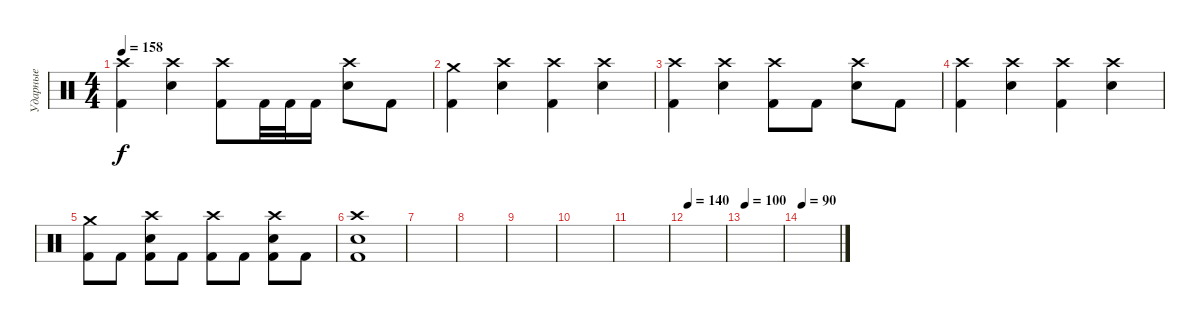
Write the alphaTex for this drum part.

\track ("Ударные" "Ударные") {instrument percussion}
\staff {score}
\articulation defaults
\ts (4 4)
\tempo 158
\clef neutral
\ks c
("Crash high (hit)" "Kick (hit) 2").4{dy f} ("Crash high (hit)" "Snare (hit) 2").4 ("Crash high (hit)" "Kick (hit) 2").8 "Kick (hit) 2".32 "Kick (hit) 2".32 "Kick (hit) 2".16 ("Crash high (hit)" "Snare (hit) 2").8 "Kick (hit) 2".8 |
("Crash medium (hit)" "Kick (hit) 2").4 ("Crash high (hit)" "Snare (hit) 2").4 ("Crash high (hit)" "Kick (hit) 2").4 ("Crash high (hit)" "Snare (hit) 2").4 |
("Crash high (hit)" "Kick (hit) 2").4 ("Crash high (hit)" "Snare (hit) 2").4 ("Crash high (hit)" "Kick (hit) 2").8 "Kick (hit) 2".8 ("Crash high (hit)" "Snare (hit) 2").8 "Kick (hit) 2".8 |
("Crash high (hit)" "Kick (hit) 2").4 ("Crash high (hit)" "Snare (hit) 2").4 ("Crash high (hit)" "Kick (hit) 2").4 ("Crash high (hit)" "Snare (hit) 2").4 |
("Crash medium (hit)" "Kick (hit) 2").8 "Kick (hit) 2".8 ("Crash high (hit)" "Snare (hit) 2" "Kick (hit) 2").8 "Kick (hit) 2".8 ("Crash high (hit)" "Kick (hit) 2").8 "Kick (hit) 2".8 ("Crash high (hit)" "Snare (hit) 2" "Kick (hit) 2").8 "Kick (hit) 2".8 |
("Crash high (hit)" "Snare (hit) 2" "Kick (hit) 2").1 |
|
|
|
|
|
\tempo 140
|
\tempo 100
|
\tempo 90
